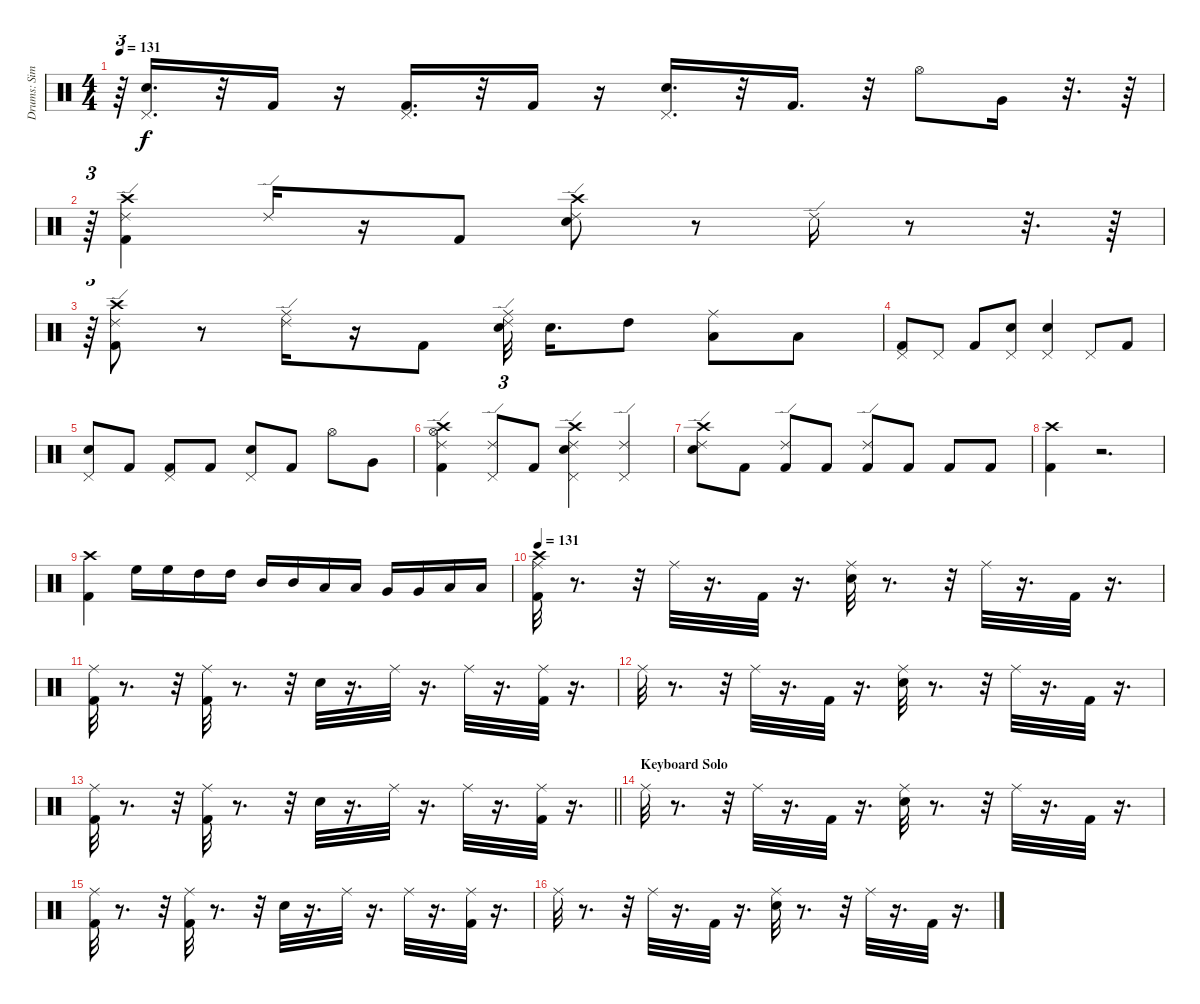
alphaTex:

\track ("Drums: Simon Kirke" "Drums: Sim") {instrument percussion}
\staff {score}
\articulation defaults
\ts (4 4)
\tempo 131
\clef neutral
\ks c
r.64{tu (3 2) dy f} ("Pedal Hi-Hat (hit)" "Electric Snare (hit)").16{d} r.32 "Kick (hit) 2".16 r.16 ("Kick (hit) 2" "Pedal Hi-Hat (hit)").16{d} r.32 "Kick (hit) 2".16 r.16 ("Pedal Hi-Hat (hit)" "Electric Snare (hit)").16{d} r.32 "Kick (hit) 2".16{d} r.32 "Hi-Hat (open)".8 "Very Low Tom (hit)".16 r.32{d} r.64 |
r.64{tu (3 2)} ("Ride (edge) 2" "Crash high (hit)" "Kick (hit) 2").4 "Ride (edge) 2".16 r.16 "Kick (hit) 2".8 ("Ride (edge) 2" "Electric Snare (hit)" "Crash high (hit)").8 r.8 "Ride (edge) 2".16 r.8 r.32{d} r.64 |
r.64{tu (3 2)} ("Ride (edge) 2" "Kick (hit) 2" "Crash high (hit)").8 r.8 ("Ride (edge) 2" "Ride (middle)").16 r.16 "Kick (hit) 2".8 ("Ride (edge) 2" "Electric Snare (hit)" "Ride (middle)").32{tu (3 2) beam splitsecondary} "Electric Snare (hit)".16{d} "High Tom (hit)".8 ("Ride (middle)" "Low Tom (hit)").8 "Low Floor Tom (hit)".8 |
("Kick (hit) 2" "Pedal Hi-Hat (hit)").8 "Pedal Hi-Hat (hit)".8 "Kick (hit) 2".8 ("Pedal Hi-Hat (hit)" "Electric Snare (hit)").8 ("Electric Snare (hit)" "Pedal Hi-Hat (hit)").4 "Pedal Hi-Hat (hit)".8 "Kick (hit) 2".8 |
("Pedal Hi-Hat (hit)" "Electric Snare (hit)").8 "Kick (hit) 2".8 ("Kick (hit) 2" "Pedal Hi-Hat (hit)").8 "Kick (hit) 2".8 ("Pedal Hi-Hat (hit)" "Electric Snare (hit)").8 "Kick (hit) 2".8 "Hi-Hat (open)".8 "Very Low Tom (hit)".8 |
("Hi-Hat (open)" "Ride (edge) 2" "Crash high (hit)" "Kick (hit) 2").4 ("Pedal Hi-Hat (hit)" "Ride (edge) 2").8 "Kick (hit) 2".8 ("Pedal Hi-Hat (hit)" "Ride (edge) 2" "Electric Snare (hit)" "Crash high (hit)").4 ("Pedal Hi-Hat (hit)" "Ride (edge) 2").4 |
("Ride (edge) 2" "Electric Snare (hit)" "Crash high (hit)").8 "Kick (hit) 2".8 ("Ride (edge) 2" "Kick (hit) 2").8 "Kick (hit) 2".8 ("Ride (edge) 2" "Kick (hit) 2").8 "Kick (hit) 2".8 "Kick (hit) 2".8 "Kick (hit) 2".8 |
("Crash high (hit)" "Kick (hit) 2").4 r.2{d} |
("Crash high (hit)" "Kick (hit) 2").4 "High Floor Tom (hit)".16 "High Floor Tom (hit)".16 "High Tom (hit)".16 "High Tom (hit)".16 "Mid Tom (hit)".16 "Mid Tom (hit)".16 "Low Tom (hit)".16 "Low Tom (hit)".16 "Very Low Tom (hit)".16 "Very Low Tom (hit)".16 "Low Floor Tom (hit)".16 "Low Floor Tom (hit)".16 |
\tempo 131
("Kick (hit) 2" "Crash high (hit)" "Ride (middle)").32 r.8{d} r.32 "Ride (middle)".32 r.16{d} "Kick (hit) 2".32 r.16{d} ("Ride (middle)" "Electric Snare (hit)").32 r.8{d} r.32 "Ride (middle)".32 r.16{d} "Kick (hit) 2".32 r.16{d} |
("Ride (middle)" "Kick (hit) 2").32 r.8{d} r.32 ("Ride (middle)" "Kick (hit) 2").32 r.8{d} r.32 "Electric Snare (hit)".32 r.16{d} "Ride (middle)".32 r.16{d} "Ride (middle)".32 r.16{d} ("Ride (middle)" "Kick (hit) 2").32 r.16{d} |
"Ride (middle)".32 r.8{d} r.32 "Ride (middle)".32 r.16{d} "Kick (hit) 2".32 r.16{d} ("Ride (middle)" "Electric Snare (hit)").32 r.8{d} r.32 "Ride (middle)".32 r.16{d} "Kick (hit) 2".32 r.16{d} |
\barLineRight lightlight
("Ride (middle)" "Kick (hit) 2").32 r.8{d} r.32 ("Ride (middle)" "Kick (hit) 2").32 r.8{d} r.32 "Electric Snare (hit)".32 r.16{d} "Ride (middle)".32 r.16{d} "Ride (middle)".32 r.16{d} ("Ride (middle)" "Kick (hit) 2").32 r.16{d} |
\section ("" "Keyboard Solo")
"Ride (middle)".32 r.8{d} r.32 "Ride (middle)".32 r.16{d} "Kick (hit) 2".32 r.16{d} ("Ride (middle)" "Electric Snare (hit)").32 r.8{d} r.32 "Ride (middle)".32 r.16{d} "Kick (hit) 2".32 r.16{d} |
("Ride (middle)" "Kick (hit) 2").32 r.8{d} r.32 ("Ride (middle)" "Kick (hit) 2").32 r.8{d} r.32 "Electric Snare (hit)".32 r.16{d} "Ride (middle)".32 r.16{d} "Ride (middle)".32 r.16{d} ("Ride (middle)" "Kick (hit) 2").32 r.16{d} |
"Ride (middle)".32 r.8{d} r.32 "Ride (middle)".32 r.16{d} "Kick (hit) 2".32 r.16{d} ("Ride (middle)" "Electric Snare (hit)").32 r.8{d} r.32 "Ride (middle)".32 r.16{d} "Kick (hit) 2".32 r.16{d}
